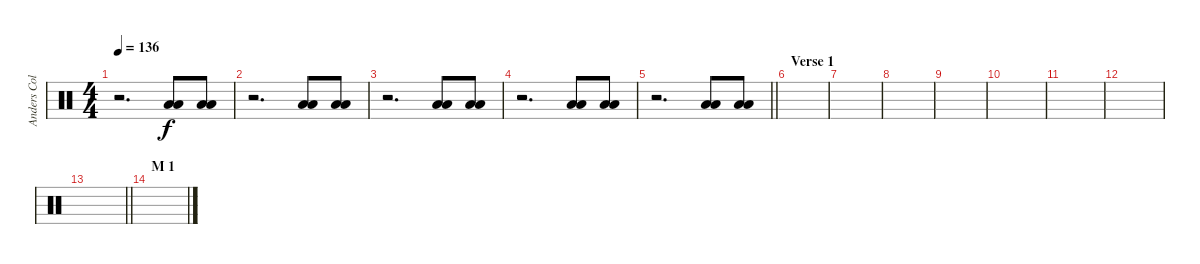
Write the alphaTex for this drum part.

\track ("Anders Colsefni" "Anders Col") {instrument percussion}
\staff {score}
\articulation defaults
\ts (4 4)
\tempo 136
\clef neutral
\ks c
r.2{d dy f} ("Low Floor Tom (hit)" "Low Floor Tom (hit)").8 ("Low Floor Tom (hit)" "Low Floor Tom (hit)").8 |
r.2{d} ("Low Floor Tom (hit)" "Low Floor Tom (hit)").8 ("Low Floor Tom (hit)" "Low Floor Tom (hit)").8 |
r.2{d} ("Low Floor Tom (hit)" "Low Floor Tom (hit)").8 ("Low Floor Tom (hit)" "Low Floor Tom (hit)").8 |
r.2{d} ("Low Floor Tom (hit)" "Low Floor Tom (hit)").8 ("Low Floor Tom (hit)" "Low Floor Tom (hit)").8 |
\barLineRight lightlight
r.2{d} ("Low Floor Tom (hit)" "Low Floor Tom (hit)").8 ("Low Floor Tom (hit)" "Low Floor Tom (hit)").8 |
\section ("" "Verse 1")
|
|
|
|
|
|
|
\barLineRight lightlight
|
\section ("" "M 1")
